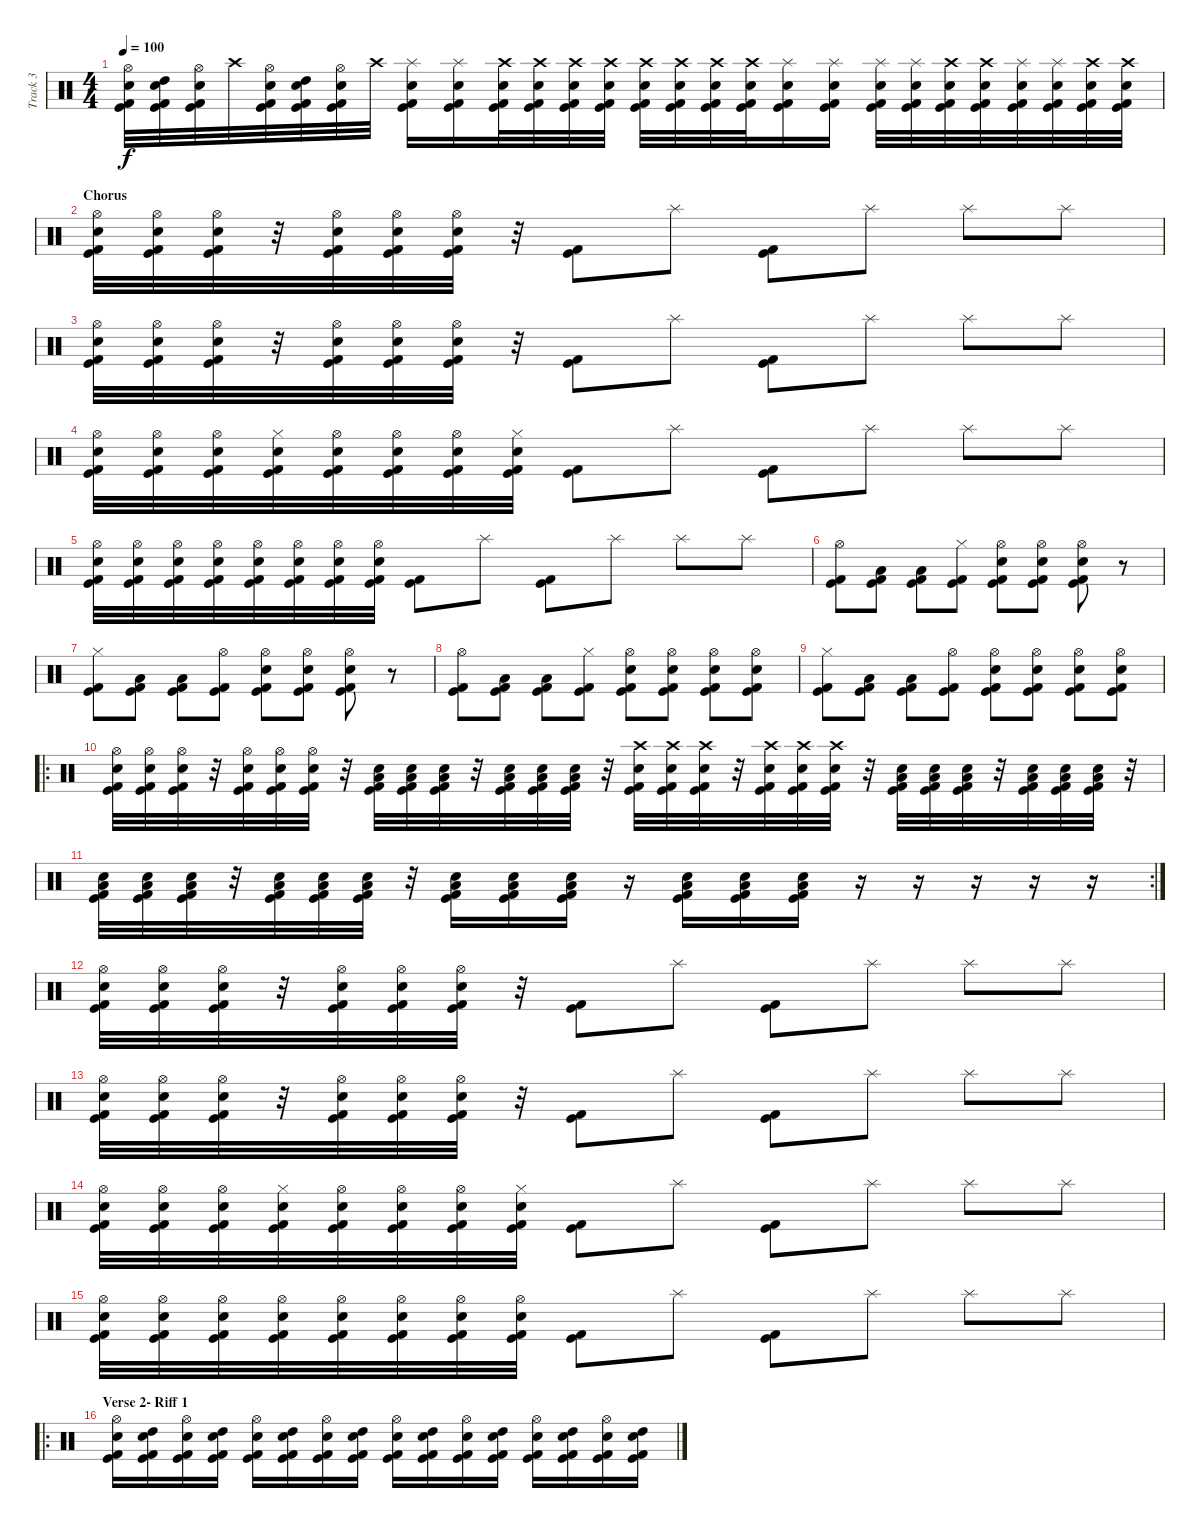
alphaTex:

\track ("Track 3" "Track 3") {instrument percussion}
\staff {score}
\articulation defaults
\ts (4 4)
\tempo 100
\clef neutral
\ks c
("Hi-Hat (open)" "Snare (hit) 2" "Kick (hit) 2" "Kick (hit)").32{dy f} ("High Tom (hit)" "Snare (hit) 2" "Kick (hit) 2" "Kick (hit)").32 ("Hi-Hat (open)" "Snare (hit) 2" "Kick (hit) 2" "Kick (hit)").32 "Crash high (hit)".32 ("Hi-Hat (open)" "Snare (hit) 2" "Kick (hit) 2" "Kick (hit)").32 ("High Tom (hit)" "Snare (hit) 2" "Kick (hit) 2" "Kick (hit)").32 ("Hi-Hat (open)" "Snare (hit) 2" "Kick (hit) 2" "Kick (hit)").32 "Crash high (hit)".32 ("Splash (hit)" "Snare (hit) 2" "Kick (hit) 2" "Kick (hit)").16 ("Splash (hit)" "Snare (hit) 2" "Kick (hit) 2" "Kick (hit)").16 ("Crash high (hit)" "Snare (hit) 2" "Kick (hit) 2" "Kick (hit)").32 ("Crash high (hit)" "Snare (hit) 2" "Kick (hit) 2" "Kick (hit)").32 ("Crash high (hit)" "Snare (hit) 2" "Kick (hit) 2" "Kick (hit)").32 ("Crash high (hit)" "Snare (hit) 2" "Kick (hit) 2" "Kick (hit)").32 ("Crash high (hit)" "Snare (hit) 2" "Kick (hit) 2" "Kick (hit)").32 ("Crash high (hit)" "Snare (hit) 2" "Kick (hit) 2" "Kick (hit)").32 ("Crash high (hit)" "Snare (hit) 2" "Kick (hit) 2" "Kick (hit)").32 ("Crash high (hit)" "Snare (hit) 2" "Kick (hit) 2" "Kick (hit)").32 ("Splash (hit)" "Snare (hit) 2" "Kick (hit) 2" "Kick (hit)").16 ("Splash (hit)" "Snare (hit) 2" "Kick (hit) 2" "Kick (hit)").16 ("Splash (hit)" "Snare (hit) 2" "Kick (hit) 2" "Kick (hit)").32 ("Splash (hit)" "Snare (hit) 2" "Kick (hit) 2" "Kick (hit)").32 ("Crash high (hit)" "Snare (hit) 2" "Kick (hit) 2" "Kick (hit)").32 ("Crash high (hit)" "Snare (hit) 2" "Kick (hit) 2" "Kick (hit)").32 ("Splash (hit)" "Snare (hit) 2" "Kick (hit) 2" "Kick (hit)").32 ("Splash (hit)" "Snare (hit) 2" "Kick (hit) 2" "Kick (hit)").32 ("Crash high (hit)" "Snare (hit) 2" "Kick (hit) 2" "Kick (hit)").32 ("Crash high (hit)" "Snare (hit) 2" "Kick (hit) 2" "Kick (hit)").32 |
\section ("" "Chorus")
("Hi-Hat (open)" "Snare (hit) 2" "Kick (hit) 2" "Kick (hit)").32 ("Hi-Hat (open)" "Snare (hit) 2" "Kick (hit) 2" "Kick (hit)").32 ("Hi-Hat (open)" "Snare (hit) 2" "Kick (hit) 2" "Kick (hit)").32 r.32 ("Hi-Hat (open)" "Snare (hit) 2" "Kick (hit) 2" "Kick (hit)").32 ("Hi-Hat (open)" "Snare (hit) 2" "Kick (hit) 2" "Kick (hit)").32 ("Hi-Hat (open)" "Snare (hit) 2" "Kick (hit) 2" "Kick (hit)").32 r.32 ("Kick (hit) 2" "Kick (hit)").8 "Splash (hit)".8 ("Kick (hit) 2" "Kick (hit)").8 "Splash (hit)".8 "Splash (hit)".8 "Splash (hit)".8 |
("Hi-Hat (open)" "Snare (hit) 2" "Kick (hit) 2" "Kick (hit)").32 ("Hi-Hat (open)" "Snare (hit) 2" "Kick (hit) 2" "Kick (hit)").32 ("Hi-Hat (open)" "Snare (hit) 2" "Kick (hit) 2" "Kick (hit)").32 r.32 ("Hi-Hat (open)" "Snare (hit) 2" "Kick (hit) 2" "Kick (hit)").32 ("Hi-Hat (open)" "Snare (hit) 2" "Kick (hit) 2" "Kick (hit)").32 ("Hi-Hat (open)" "Snare (hit) 2" "Kick (hit) 2" "Kick (hit)").32 r.32 ("Kick (hit) 2" "Kick (hit)").8 "Splash (hit)".8 ("Kick (hit) 2" "Kick (hit)").8 "Splash (hit)".8 "Splash (hit)".8 "Splash (hit)".8 |
("Hi-Hat (open)" "Snare (hit) 2" "Kick (hit) 2" "Kick (hit)").32 ("Hi-Hat (open)" "Snare (hit) 2" "Kick (hit) 2" "Kick (hit)").32 ("Hi-Hat (open)" "Snare (hit) 2" "Kick (hit) 2" "Kick (hit)").32 ("Hi-Hat (closed)" "Snare (hit) 2" "Kick (hit) 2" "Kick (hit)").32 ("Hi-Hat (open)" "Snare (hit) 2" "Kick (hit) 2" "Kick (hit)").32 ("Hi-Hat (open)" "Snare (hit) 2" "Kick (hit) 2" "Kick (hit)").32 ("Hi-Hat (open)" "Snare (hit) 2" "Kick (hit) 2" "Kick (hit)").32 ("Hi-Hat (closed)" "Snare (hit) 2" "Kick (hit) 2" "Kick (hit)").32 ("Kick (hit) 2" "Kick (hit)").8 "Splash (hit)".8 ("Kick (hit) 2" "Kick (hit)").8 "Splash (hit)".8 "Splash (hit)".8 "Splash (hit)".8 |
("Hi-Hat (open)" "Snare (hit) 2" "Kick (hit) 2" "Kick (hit)").32 ("Hi-Hat (open)" "Snare (hit) 2" "Kick (hit) 2" "Kick (hit)").32 ("Hi-Hat (open)" "Snare (hit) 2" "Kick (hit) 2" "Kick (hit)").32 ("Hi-Hat (open)" "Snare (hit) 2" "Kick (hit) 2" "Kick (hit)").32 ("Hi-Hat (open)" "Snare (hit) 2" "Kick (hit) 2" "Kick (hit)").32 ("Hi-Hat (open)" "Snare (hit) 2" "Kick (hit) 2" "Kick (hit)").32 ("Hi-Hat (open)" "Snare (hit) 2" "Kick (hit) 2" "Kick (hit)").32 ("Hi-Hat (open)" "Snare (hit) 2" "Kick (hit) 2" "Kick (hit)").32 ("Kick (hit) 2" "Kick (hit)").8 "Splash (hit)".8 ("Kick (hit) 2" "Kick (hit)").8 "Splash (hit)".8 "Splash (hit)".8 "Splash (hit)".8 |
("Hi-Hat (open)" "Kick (hit) 2" "Kick (hit)").8 ("Low Tom (hit)" "Kick (hit) 2" "Kick (hit)").8 ("Low Tom (hit)" "Kick (hit) 2" "Kick (hit)").8 ("Hi-Hat (closed)" "Kick (hit) 2" "Kick (hit)").8 ("Hi-Hat (open)" "Snare (hit) 2" "Kick (hit) 2" "Kick (hit)").8 ("Hi-Hat (open)" "Snare (hit) 2" "Kick (hit) 2" "Kick (hit)").8 ("Hi-Hat (open)" "Snare (hit) 2" "Kick (hit) 2" "Kick (hit)").8 r.8 |
("Hi-Hat (closed)" "Kick (hit) 2" "Kick (hit)").8 ("Low Tom (hit)" "Kick (hit) 2" "Kick (hit)").8 ("Low Tom (hit)" "Kick (hit) 2" "Kick (hit)").8 ("Hi-Hat (open)" "Kick (hit) 2" "Kick (hit)").8 ("Hi-Hat (open)" "Snare (hit) 2" "Kick (hit) 2" "Kick (hit)").8 ("Hi-Hat (open)" "Snare (hit) 2" "Kick (hit) 2" "Kick (hit)").8 ("Hi-Hat (open)" "Snare (hit) 2" "Kick (hit) 2" "Kick (hit)").8 r.8 |
("Hi-Hat (open)" "Kick (hit) 2" "Kick (hit)").8 ("Low Tom (hit)" "Kick (hit) 2" "Kick (hit)").8 ("Low Tom (hit)" "Kick (hit) 2" "Kick (hit)").8 ("Hi-Hat (closed)" "Kick (hit) 2" "Kick (hit)").8 ("Hi-Hat (open)" "Snare (hit) 2" "Kick (hit) 2" "Kick (hit)").8 ("Hi-Hat (open)" "Snare (hit) 2" "Kick (hit) 2" "Kick (hit)").8 ("Hi-Hat (open)" "Snare (hit) 2" "Kick (hit) 2" "Kick (hit)").8 ("Hi-Hat (open)" "Snare (hit) 2" "Kick (hit) 2" "Kick (hit)").8 |
("Hi-Hat (closed)" "Kick (hit) 2" "Kick (hit)").8 ("Low Tom (hit)" "Kick (hit) 2" "Kick (hit)").8 ("Low Tom (hit)" "Kick (hit) 2" "Kick (hit)").8 ("Hi-Hat (open)" "Kick (hit) 2" "Kick (hit)").8 ("Hi-Hat (open)" "Snare (hit) 2" "Kick (hit) 2" "Kick (hit)").8 ("Hi-Hat (open)" "Snare (hit) 2" "Kick (hit) 2" "Kick (hit)").8 ("Hi-Hat (open)" "Snare (hit) 2" "Kick (hit) 2" "Kick (hit)").8 ("Hi-Hat (open)" "Snare (hit) 2" "Kick (hit) 2" "Kick (hit)").8 |
\ro
("Hi-Hat (open)" "Snare (hit) 2" "Kick (hit) 2" "Kick (hit)").32 ("Hi-Hat (open)" "Snare (hit) 2" "Kick (hit) 2" "Kick (hit)").32 ("Hi-Hat (open)" "Snare (hit) 2" "Kick (hit) 2" "Kick (hit)").32 r.32 ("Hi-Hat (open)" "Snare (hit) 2" "Kick (hit) 2" "Kick (hit)").32 ("Hi-Hat (open)" "Snare (hit) 2" "Kick (hit) 2" "Kick (hit)").32 ("Hi-Hat (open)" "Snare (hit) 2" "Kick (hit) 2" "Kick (hit)").32 r.32 ("Low Tom (hit)" "Snare (hit) 2" "Kick (hit) 2" "Kick (hit)").32 ("Low Tom (hit)" "Snare (hit) 2" "Kick (hit) 2" "Kick (hit)").32 ("Low Tom (hit)" "Snare (hit) 2" "Kick (hit) 2" "Kick (hit)").32 r.32 ("Low Tom (hit)" "Snare (hit) 2" "Kick (hit) 2" "Kick (hit)").32 ("Low Tom (hit)" "Snare (hit) 2" "Kick (hit) 2" "Kick (hit)").32 ("Low Tom (hit)" "Snare (hit) 2" "Kick (hit) 2" "Kick (hit)").32 r.32 ("Crash high (hit)" "Snare (hit) 2" "Kick (hit) 2" "Kick (hit)").32 ("Crash high (hit)" "Snare (hit) 2" "Kick (hit) 2" "Kick (hit)").32 ("Crash high (hit)" "Snare (hit) 2" "Kick (hit) 2" "Kick (hit)").32 r.32 ("Crash high (hit)" "Snare (hit) 2" "Kick (hit) 2" "Kick (hit)").32 ("Crash high (hit)" "Snare (hit) 2" "Kick (hit) 2" "Kick (hit)").32 ("Crash high (hit)" "Snare (hit) 2" "Kick (hit) 2" "Kick (hit)").32 r.32 ("Low Tom (hit)" "Snare (hit) 2" "Kick (hit) 2" "Kick (hit)").32 ("Low Tom (hit)" "Snare (hit) 2" "Kick (hit) 2" "Kick (hit)").32 ("Low Tom (hit)" "Snare (hit) 2" "Kick (hit) 2" "Kick (hit)").32 r.32 ("Low Tom (hit)" "Snare (hit) 2" "Kick (hit) 2" "Kick (hit)").32 ("Low Tom (hit)" "Snare (hit) 2" "Kick (hit) 2" "Kick (hit)").32 ("Low Tom (hit)" "Snare (hit) 2" "Kick (hit) 2" "Kick (hit)").32 r.32 |
\rc 2
("Low Tom (hit)" "Snare (hit) 2" "Kick (hit) 2" "Kick (hit)").32 ("Low Tom (hit)" "Snare (hit) 2" "Kick (hit) 2" "Kick (hit)").32 ("Low Tom (hit)" "Snare (hit) 2" "Kick (hit) 2" "Kick (hit)").32 r.32 ("Low Tom (hit)" "Snare (hit) 2" "Kick (hit) 2" "Kick (hit)").32 ("Low Tom (hit)" "Snare (hit) 2" "Kick (hit) 2" "Kick (hit)").32 ("Low Tom (hit)" "Snare (hit) 2" "Kick (hit) 2" "Kick (hit)").32 r.32 ("Low Tom (hit)" "Snare (hit) 2" "Kick (hit) 2" "Kick (hit)").16 ("Low Tom (hit)" "Snare (hit) 2" "Kick (hit) 2" "Kick (hit)").16 ("Low Tom (hit)" "Snare (hit) 2" "Kick (hit) 2" "Kick (hit)").16 r.16 ("Low Tom (hit)" "Snare (hit) 2" "Kick (hit) 2" "Kick (hit)").16 ("Low Tom (hit)" "Snare (hit) 2" "Kick (hit) 2" "Kick (hit)").16 ("Low Tom (hit)" "Snare (hit) 2" "Kick (hit) 2" "Kick (hit)").16 r.16 r.16 r.16 r.16 r.16 |
("Hi-Hat (open)" "Snare (hit) 2" "Kick (hit) 2" "Kick (hit)").32 ("Hi-Hat (open)" "Snare (hit) 2" "Kick (hit) 2" "Kick (hit)").32 ("Hi-Hat (open)" "Snare (hit) 2" "Kick (hit) 2" "Kick (hit)").32 r.32 ("Hi-Hat (open)" "Snare (hit) 2" "Kick (hit) 2" "Kick (hit)").32 ("Hi-Hat (open)" "Snare (hit) 2" "Kick (hit) 2" "Kick (hit)").32 ("Hi-Hat (open)" "Snare (hit) 2" "Kick (hit) 2" "Kick (hit)").32 r.32 ("Kick (hit) 2" "Kick (hit)").8 "Splash (hit)".8 ("Kick (hit) 2" "Kick (hit)").8 "Splash (hit)".8 "Splash (hit)".8 "Splash (hit)".8 |
("Hi-Hat (open)" "Snare (hit) 2" "Kick (hit) 2" "Kick (hit)").32 ("Hi-Hat (open)" "Snare (hit) 2" "Kick (hit) 2" "Kick (hit)").32 ("Hi-Hat (open)" "Snare (hit) 2" "Kick (hit) 2" "Kick (hit)").32 r.32 ("Hi-Hat (open)" "Snare (hit) 2" "Kick (hit) 2" "Kick (hit)").32 ("Hi-Hat (open)" "Snare (hit) 2" "Kick (hit) 2" "Kick (hit)").32 ("Hi-Hat (open)" "Snare (hit) 2" "Kick (hit) 2" "Kick (hit)").32 r.32 ("Kick (hit) 2" "Kick (hit)").8 "Splash (hit)".8 ("Kick (hit) 2" "Kick (hit)").8 "Splash (hit)".8 "Splash (hit)".8 "Splash (hit)".8 |
("Hi-Hat (open)" "Snare (hit) 2" "Kick (hit) 2" "Kick (hit)").32 ("Hi-Hat (open)" "Snare (hit) 2" "Kick (hit) 2" "Kick (hit)").32 ("Hi-Hat (open)" "Snare (hit) 2" "Kick (hit) 2" "Kick (hit)").32 ("Hi-Hat (closed)" "Snare (hit) 2" "Kick (hit) 2" "Kick (hit)").32 ("Hi-Hat (open)" "Snare (hit) 2" "Kick (hit) 2" "Kick (hit)").32 ("Hi-Hat (open)" "Snare (hit) 2" "Kick (hit) 2" "Kick (hit)").32 ("Hi-Hat (open)" "Snare (hit) 2" "Kick (hit) 2" "Kick (hit)").32 ("Hi-Hat (closed)" "Snare (hit) 2" "Kick (hit) 2" "Kick (hit)").32 ("Kick (hit) 2" "Kick (hit)").8 "Splash (hit)".8 ("Kick (hit) 2" "Kick (hit)").8 "Splash (hit)".8 "Splash (hit)".8 "Splash (hit)".8 |
("Hi-Hat (open)" "Snare (hit) 2" "Kick (hit) 2" "Kick (hit)").32 ("Hi-Hat (open)" "Snare (hit) 2" "Kick (hit) 2" "Kick (hit)").32 ("Hi-Hat (open)" "Snare (hit) 2" "Kick (hit) 2" "Kick (hit)").32 ("Hi-Hat (open)" "Snare (hit) 2" "Kick (hit) 2" "Kick (hit)").32 ("Hi-Hat (open)" "Snare (hit) 2" "Kick (hit) 2" "Kick (hit)").32 ("Hi-Hat (open)" "Snare (hit) 2" "Kick (hit) 2" "Kick (hit)").32 ("Hi-Hat (open)" "Snare (hit) 2" "Kick (hit) 2" "Kick (hit)").32 ("Hi-Hat (open)" "Snare (hit) 2" "Kick (hit) 2" "Kick (hit)").32 ("Kick (hit) 2" "Kick (hit)").8 "Splash (hit)".8 ("Kick (hit) 2" "Kick (hit)").8 "Splash (hit)".8 "Splash (hit)".8 "Splash (hit)".8 |
\ro
\section ("" "Verse 2- Riff 1")
("Hi-Hat (open)" "Snare (hit) 2" "Kick (hit) 2" "Kick (hit)").16 ("High Tom (hit)" "Snare (hit) 2" "Kick (hit) 2" "Kick (hit)").16 ("Hi-Hat (open)" "Snare (hit) 2" "Kick (hit) 2" "Kick (hit)").16 ("High Tom (hit)" "Snare (hit) 2" "Kick (hit) 2" "Kick (hit)").16 ("Hi-Hat (open)" "Snare (hit) 2" "Kick (hit) 2" "Kick (hit)").16 ("High Tom (hit)" "Snare (hit) 2" "Kick (hit) 2" "Kick (hit)").16 ("Hi-Hat (open)" "Snare (hit) 2" "Kick (hit) 2" "Kick (hit)").16 ("High Tom (hit)" "Snare (hit) 2" "Kick (hit) 2" "Kick (hit)").16 ("Hi-Hat (open)" "Snare (hit) 2" "Kick (hit) 2" "Kick (hit)").16 ("High Tom (hit)" "Snare (hit) 2" "Kick (hit) 2" "Kick (hit)").16 ("Hi-Hat (open)" "Snare (hit) 2" "Kick (hit) 2" "Kick (hit)").16 ("High Tom (hit)" "Snare (hit) 2" "Kick (hit) 2" "Kick (hit)").16 ("Hi-Hat (open)" "Snare (hit) 2" "Kick (hit) 2" "Kick (hit)").16 ("High Tom (hit)" "Snare (hit) 2" "Kick (hit) 2" "Kick (hit)").16 ("Hi-Hat (open)" "Snare (hit) 2" "Kick (hit) 2" "Kick (hit)").16 ("High Tom (hit)" "Snare (hit) 2" "Kick (hit) 2" "Kick (hit)").16
